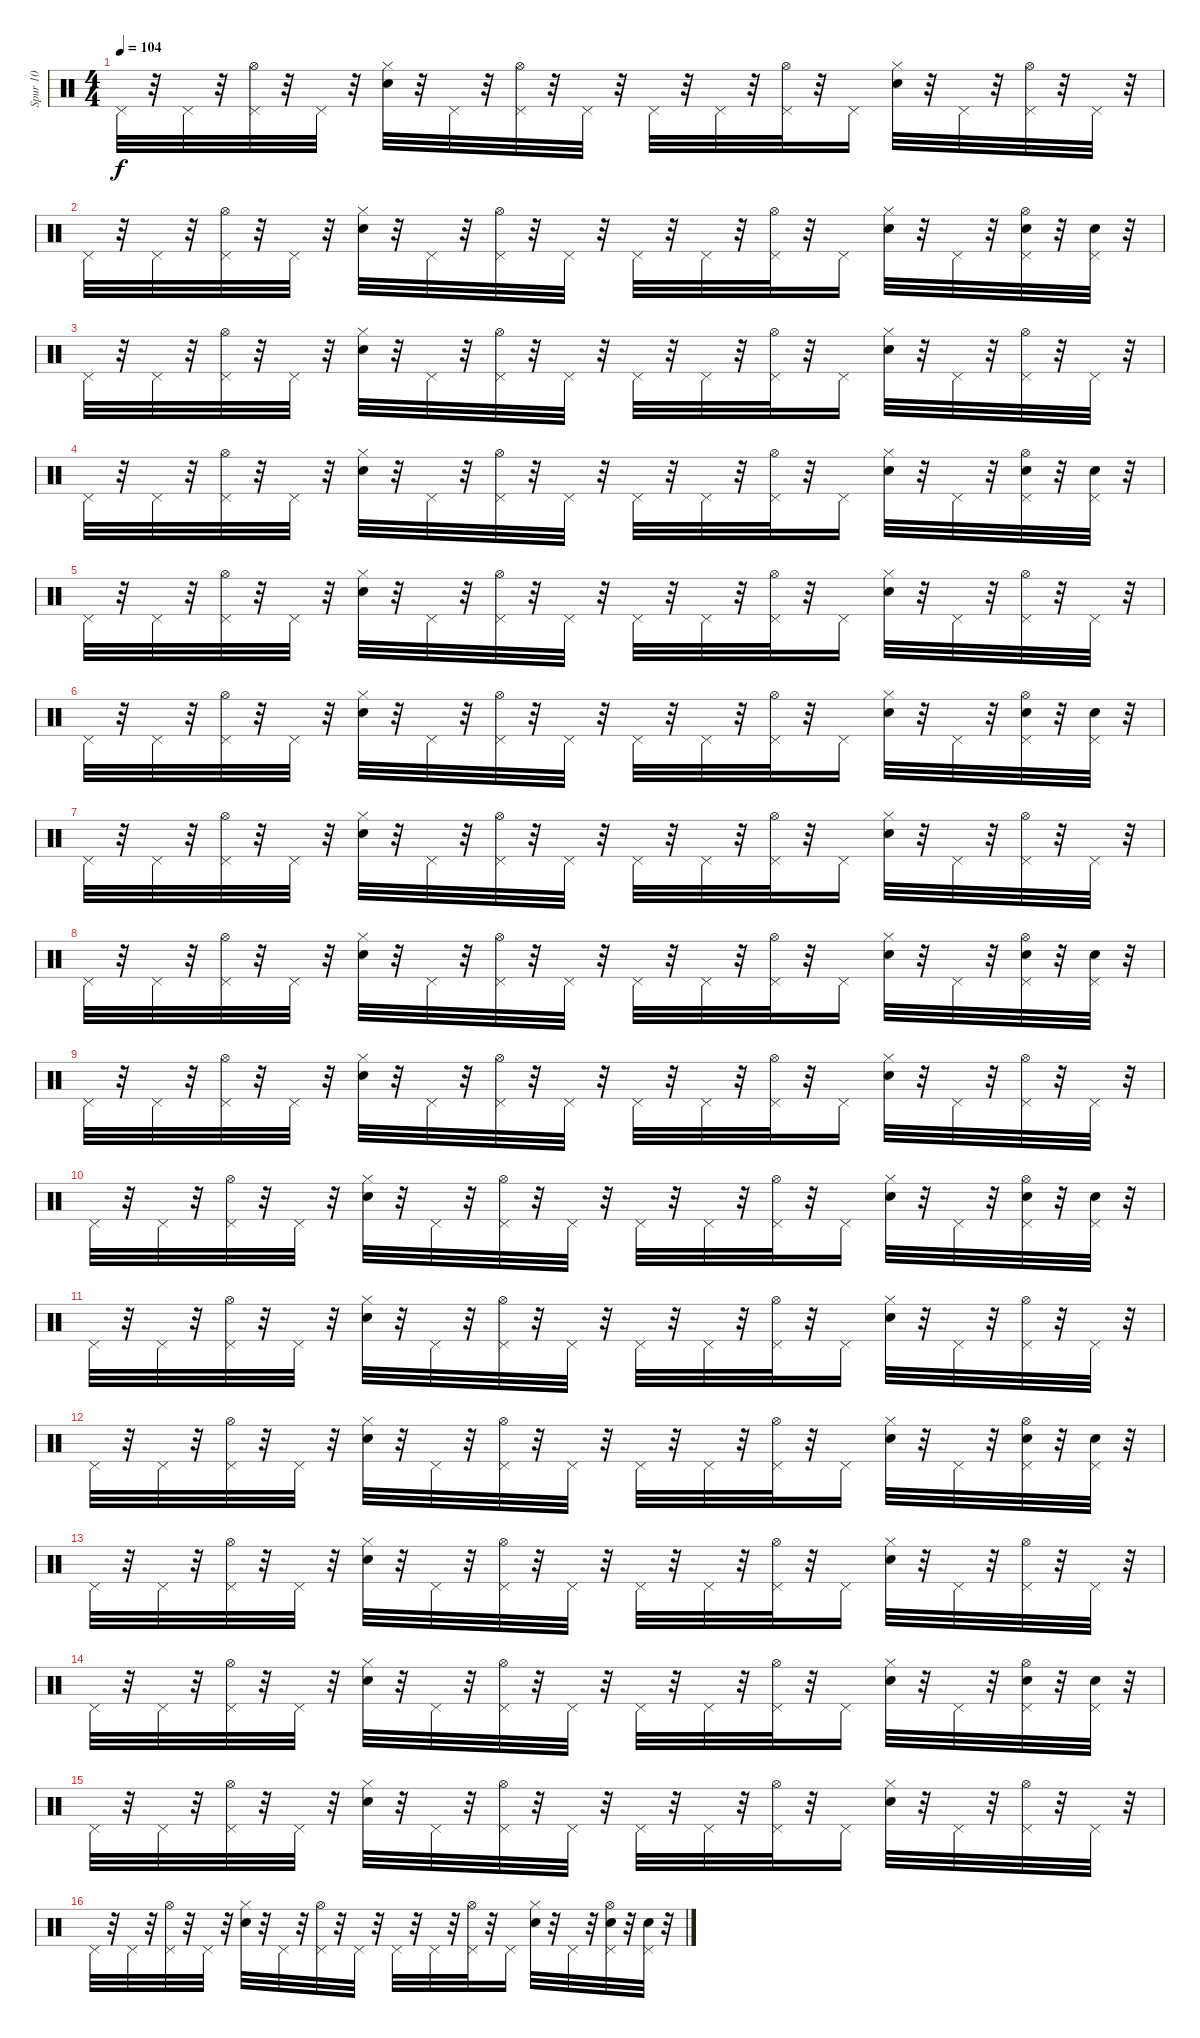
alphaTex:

\track ("Spur 10" "Spur 10") {instrument percussion}
\staff {score}
\articulation defaults
\ts (4 4)
\tempo 104
\clef neutral
\ks c "Pedal Hi-Hat (hit)".32{dy f}
r.32 "Pedal Hi-Hat (hit)".32 r.32 ("Pedal Hi-Hat (hit)" "Hi-Hat (open)").32 r.32 "Pedal Hi-Hat (hit)".32 r.32 ("Snare (hit) 2" "Hi-Hat (closed)").32 r.32 "Pedal Hi-Hat (hit)".32 r.32 ("Pedal Hi-Hat (hit)" "Hi-Hat (open)").32 r.32 "Pedal Hi-Hat (hit)".32 r.32 "Pedal Hi-Hat (hit)".32 r.32 "Pedal Hi-Hat (hit)".32 r.32 ("Pedal Hi-Hat (hit)" "Hi-Hat (open)").32 r.32 "Pedal Hi-Hat (hit)".16 ("Snare (hit) 2" "Hi-Hat (closed)").32 r.32 "Pedal Hi-Hat (hit)".32 r.32 ("Pedal Hi-Hat (hit)" "Hi-Hat (open)").32 r.32 "Pedal Hi-Hat (hit)".32 r.32 |
"Pedal Hi-Hat (hit)".32 r.32 "Pedal Hi-Hat (hit)".32 r.32 ("Pedal Hi-Hat (hit)" "Hi-Hat (open)").32 r.32 "Pedal Hi-Hat (hit)".32 r.32 ("Snare (hit) 2" "Hi-Hat (closed)").32 r.32 "Pedal Hi-Hat (hit)".32 r.32 ("Pedal Hi-Hat (hit)" "Hi-Hat (open)").32 r.32 "Pedal Hi-Hat (hit)".32 r.32 "Pedal Hi-Hat (hit)".32 r.32 "Pedal Hi-Hat (hit)".32 r.32 ("Pedal Hi-Hat (hit)" "Hi-Hat (open)").32 r.32 "Pedal Hi-Hat (hit)".16 ("Snare (hit) 2" "Hi-Hat (closed)").32 r.32 "Pedal Hi-Hat (hit)".32 r.32 ("Snare (hit) 2" "Pedal Hi-Hat (hit)" "Hi-Hat (open)").32 r.32 ("Snare (hit) 2" "Pedal Hi-Hat (hit)").32 r.32 |
"Pedal Hi-Hat (hit)".32 r.32 "Pedal Hi-Hat (hit)".32 r.32 ("Pedal Hi-Hat (hit)" "Hi-Hat (open)").32 r.32 "Pedal Hi-Hat (hit)".32 r.32 ("Snare (hit) 2" "Hi-Hat (closed)").32 r.32 "Pedal Hi-Hat (hit)".32 r.32 ("Pedal Hi-Hat (hit)" "Hi-Hat (open)").32 r.32 "Pedal Hi-Hat (hit)".32 r.32 "Pedal Hi-Hat (hit)".32 r.32 "Pedal Hi-Hat (hit)".32 r.32 ("Pedal Hi-Hat (hit)" "Hi-Hat (open)").32 r.32 "Pedal Hi-Hat (hit)".16 ("Snare (hit) 2" "Hi-Hat (closed)").32 r.32 "Pedal Hi-Hat (hit)".32 r.32 ("Pedal Hi-Hat (hit)" "Hi-Hat (open)").32 r.32 "Pedal Hi-Hat (hit)".32 r.32 |
"Pedal Hi-Hat (hit)".32 r.32 "Pedal Hi-Hat (hit)".32 r.32 ("Pedal Hi-Hat (hit)" "Hi-Hat (open)").32 r.32 "Pedal Hi-Hat (hit)".32 r.32 ("Snare (hit) 2" "Hi-Hat (closed)").32 r.32 "Pedal Hi-Hat (hit)".32 r.32 ("Pedal Hi-Hat (hit)" "Hi-Hat (open)").32 r.32 "Pedal Hi-Hat (hit)".32 r.32 "Pedal Hi-Hat (hit)".32 r.32 "Pedal Hi-Hat (hit)".32 r.32 ("Pedal Hi-Hat (hit)" "Hi-Hat (open)").32 r.32 "Pedal Hi-Hat (hit)".16 ("Snare (hit) 2" "Hi-Hat (closed)").32 r.32 "Pedal Hi-Hat (hit)".32 r.32 ("Snare (hit) 2" "Pedal Hi-Hat (hit)" "Hi-Hat (open)").32 r.32 ("Snare (hit) 2" "Pedal Hi-Hat (hit)").32 r.32 |
"Pedal Hi-Hat (hit)".32 r.32 "Pedal Hi-Hat (hit)".32 r.32 ("Pedal Hi-Hat (hit)" "Hi-Hat (open)").32 r.32 "Pedal Hi-Hat (hit)".32 r.32 ("Snare (hit) 2" "Hi-Hat (closed)").32 r.32 "Pedal Hi-Hat (hit)".32 r.32 ("Pedal Hi-Hat (hit)" "Hi-Hat (open)").32 r.32 "Pedal Hi-Hat (hit)".32 r.32 "Pedal Hi-Hat (hit)".32 r.32 "Pedal Hi-Hat (hit)".32 r.32 ("Pedal Hi-Hat (hit)" "Hi-Hat (open)").32 r.32 "Pedal Hi-Hat (hit)".16 ("Snare (hit) 2" "Hi-Hat (closed)").32 r.32 "Pedal Hi-Hat (hit)".32 r.32 ("Pedal Hi-Hat (hit)" "Hi-Hat (open)").32 r.32 "Pedal Hi-Hat (hit)".32 r.32 |
"Pedal Hi-Hat (hit)".32 r.32 "Pedal Hi-Hat (hit)".32 r.32 ("Pedal Hi-Hat (hit)" "Hi-Hat (open)").32 r.32 "Pedal Hi-Hat (hit)".32 r.32 ("Snare (hit) 2" "Hi-Hat (closed)").32 r.32 "Pedal Hi-Hat (hit)".32 r.32 ("Pedal Hi-Hat (hit)" "Hi-Hat (open)").32 r.32 "Pedal Hi-Hat (hit)".32 r.32 "Pedal Hi-Hat (hit)".32 r.32 "Pedal Hi-Hat (hit)".32 r.32 ("Pedal Hi-Hat (hit)" "Hi-Hat (open)").32 r.32 "Pedal Hi-Hat (hit)".16 ("Snare (hit) 2" "Hi-Hat (closed)").32 r.32 "Pedal Hi-Hat (hit)".32 r.32 ("Snare (hit) 2" "Pedal Hi-Hat (hit)" "Hi-Hat (open)").32 r.32 ("Snare (hit) 2" "Pedal Hi-Hat (hit)").32 r.32 |
"Pedal Hi-Hat (hit)".32 r.32 "Pedal Hi-Hat (hit)".32 r.32 ("Pedal Hi-Hat (hit)" "Hi-Hat (open)").32 r.32 "Pedal Hi-Hat (hit)".32 r.32 ("Snare (hit) 2" "Hi-Hat (closed)").32 r.32 "Pedal Hi-Hat (hit)".32 r.32 ("Pedal Hi-Hat (hit)" "Hi-Hat (open)").32 r.32 "Pedal Hi-Hat (hit)".32 r.32 "Pedal Hi-Hat (hit)".32 r.32 "Pedal Hi-Hat (hit)".32 r.32 ("Pedal Hi-Hat (hit)" "Hi-Hat (open)").32 r.32 "Pedal Hi-Hat (hit)".16 ("Snare (hit) 2" "Hi-Hat (closed)").32 r.32 "Pedal Hi-Hat (hit)".32 r.32 ("Pedal Hi-Hat (hit)" "Hi-Hat (open)").32 r.32 "Pedal Hi-Hat (hit)".32 r.32 |
"Pedal Hi-Hat (hit)".32 r.32 "Pedal Hi-Hat (hit)".32 r.32 ("Pedal Hi-Hat (hit)" "Hi-Hat (open)").32 r.32 "Pedal Hi-Hat (hit)".32 r.32 ("Snare (hit) 2" "Hi-Hat (closed)").32 r.32 "Pedal Hi-Hat (hit)".32 r.32 ("Pedal Hi-Hat (hit)" "Hi-Hat (open)").32 r.32 "Pedal Hi-Hat (hit)".32 r.32 "Pedal Hi-Hat (hit)".32 r.32 "Pedal Hi-Hat (hit)".32 r.32 ("Pedal Hi-Hat (hit)" "Hi-Hat (open)").32 r.32 "Pedal Hi-Hat (hit)".16 ("Snare (hit) 2" "Hi-Hat (closed)").32 r.32 "Pedal Hi-Hat (hit)".32 r.32 ("Snare (hit) 2" "Pedal Hi-Hat (hit)" "Hi-Hat (open)").32 r.32 ("Snare (hit) 2" "Pedal Hi-Hat (hit)").32 r.32 |
"Pedal Hi-Hat (hit)".32 r.32 "Pedal Hi-Hat (hit)".32 r.32 ("Pedal Hi-Hat (hit)" "Hi-Hat (open)").32 r.32 "Pedal Hi-Hat (hit)".32 r.32 ("Snare (hit) 2" "Hi-Hat (closed)").32 r.32 "Pedal Hi-Hat (hit)".32 r.32 ("Pedal Hi-Hat (hit)" "Hi-Hat (open)").32 r.32 "Pedal Hi-Hat (hit)".32 r.32 "Pedal Hi-Hat (hit)".32 r.32 "Pedal Hi-Hat (hit)".32 r.32 ("Pedal Hi-Hat (hit)" "Hi-Hat (open)").32 r.32 "Pedal Hi-Hat (hit)".16 ("Snare (hit) 2" "Hi-Hat (closed)").32 r.32 "Pedal Hi-Hat (hit)".32 r.32 ("Pedal Hi-Hat (hit)" "Hi-Hat (open)").32 r.32 "Pedal Hi-Hat (hit)".32 r.32 |
"Pedal Hi-Hat (hit)".32 r.32 "Pedal Hi-Hat (hit)".32 r.32 ("Pedal Hi-Hat (hit)" "Hi-Hat (open)").32 r.32 "Pedal Hi-Hat (hit)".32 r.32 ("Snare (hit) 2" "Hi-Hat (closed)").32 r.32 "Pedal Hi-Hat (hit)".32 r.32 ("Pedal Hi-Hat (hit)" "Hi-Hat (open)").32 r.32 "Pedal Hi-Hat (hit)".32 r.32 "Pedal Hi-Hat (hit)".32 r.32 "Pedal Hi-Hat (hit)".32 r.32 ("Pedal Hi-Hat (hit)" "Hi-Hat (open)").32 r.32 "Pedal Hi-Hat (hit)".16 ("Snare (hit) 2" "Hi-Hat (closed)").32 r.32 "Pedal Hi-Hat (hit)".32 r.32 ("Snare (hit) 2" "Pedal Hi-Hat (hit)" "Hi-Hat (open)").32 r.32 ("Snare (hit) 2" "Pedal Hi-Hat (hit)").32 r.32 |
"Pedal Hi-Hat (hit)".32 r.32 "Pedal Hi-Hat (hit)".32 r.32 ("Pedal Hi-Hat (hit)" "Hi-Hat (open)").32 r.32 "Pedal Hi-Hat (hit)".32 r.32 ("Snare (hit) 2" "Hi-Hat (closed)").32 r.32 "Pedal Hi-Hat (hit)".32 r.32 ("Pedal Hi-Hat (hit)" "Hi-Hat (open)").32 r.32 "Pedal Hi-Hat (hit)".32 r.32 "Pedal Hi-Hat (hit)".32 r.32 "Pedal Hi-Hat (hit)".32 r.32 ("Pedal Hi-Hat (hit)" "Hi-Hat (open)").32 r.32 "Pedal Hi-Hat (hit)".16 ("Snare (hit) 2" "Hi-Hat (closed)").32 r.32 "Pedal Hi-Hat (hit)".32 r.32 ("Pedal Hi-Hat (hit)" "Hi-Hat (open)").32 r.32 "Pedal Hi-Hat (hit)".32 r.32 |
"Pedal Hi-Hat (hit)".32 r.32 "Pedal Hi-Hat (hit)".32 r.32 ("Pedal Hi-Hat (hit)" "Hi-Hat (open)").32 r.32 "Pedal Hi-Hat (hit)".32 r.32 ("Snare (hit) 2" "Hi-Hat (closed)").32 r.32 "Pedal Hi-Hat (hit)".32 r.32 ("Pedal Hi-Hat (hit)" "Hi-Hat (open)").32 r.32 "Pedal Hi-Hat (hit)".32 r.32 "Pedal Hi-Hat (hit)".32 r.32 "Pedal Hi-Hat (hit)".32 r.32 ("Pedal Hi-Hat (hit)" "Hi-Hat (open)").32 r.32 "Pedal Hi-Hat (hit)".16 ("Snare (hit) 2" "Hi-Hat (closed)").32 r.32 "Pedal Hi-Hat (hit)".32 r.32 ("Snare (hit) 2" "Pedal Hi-Hat (hit)" "Hi-Hat (open)").32 r.32 ("Snare (hit) 2" "Pedal Hi-Hat (hit)").32 r.32 |
"Pedal Hi-Hat (hit)".32 r.32 "Pedal Hi-Hat (hit)".32 r.32 ("Pedal Hi-Hat (hit)" "Hi-Hat (open)").32 r.32 "Pedal Hi-Hat (hit)".32 r.32 ("Snare (hit) 2" "Hi-Hat (closed)").32 r.32 "Pedal Hi-Hat (hit)".32 r.32 ("Pedal Hi-Hat (hit)" "Hi-Hat (open)").32 r.32 "Pedal Hi-Hat (hit)".32 r.32 "Pedal Hi-Hat (hit)".32 r.32 "Pedal Hi-Hat (hit)".32 r.32 ("Pedal Hi-Hat (hit)" "Hi-Hat (open)").32 r.32 "Pedal Hi-Hat (hit)".16 ("Snare (hit) 2" "Hi-Hat (closed)").32 r.32 "Pedal Hi-Hat (hit)".32 r.32 ("Pedal Hi-Hat (hit)" "Hi-Hat (open)").32 r.32 "Pedal Hi-Hat (hit)".32 r.32 |
"Pedal Hi-Hat (hit)".32 r.32 "Pedal Hi-Hat (hit)".32 r.32 ("Pedal Hi-Hat (hit)" "Hi-Hat (open)").32 r.32 "Pedal Hi-Hat (hit)".32 r.32 ("Snare (hit) 2" "Hi-Hat (closed)").32 r.32 "Pedal Hi-Hat (hit)".32 r.32 ("Pedal Hi-Hat (hit)" "Hi-Hat (open)").32 r.32 "Pedal Hi-Hat (hit)".32 r.32 "Pedal Hi-Hat (hit)".32 r.32 "Pedal Hi-Hat (hit)".32 r.32 ("Pedal Hi-Hat (hit)" "Hi-Hat (open)").32 r.32 "Pedal Hi-Hat (hit)".16 ("Snare (hit) 2" "Hi-Hat (closed)").32 r.32 "Pedal Hi-Hat (hit)".32 r.32 ("Snare (hit) 2" "Pedal Hi-Hat (hit)" "Hi-Hat (open)").32 r.32 ("Snare (hit) 2" "Pedal Hi-Hat (hit)").32 r.32 |
"Pedal Hi-Hat (hit)".32 r.32 "Pedal Hi-Hat (hit)".32 r.32 ("Pedal Hi-Hat (hit)" "Hi-Hat (open)").32 r.32 "Pedal Hi-Hat (hit)".32 r.32 ("Snare (hit) 2" "Hi-Hat (closed)").32 r.32 "Pedal Hi-Hat (hit)".32 r.32 ("Pedal Hi-Hat (hit)" "Hi-Hat (open)").32 r.32 "Pedal Hi-Hat (hit)".32 r.32 "Pedal Hi-Hat (hit)".32 r.32 "Pedal Hi-Hat (hit)".32 r.32 ("Pedal Hi-Hat (hit)" "Hi-Hat (open)").32 r.32 "Pedal Hi-Hat (hit)".16 ("Snare (hit) 2" "Hi-Hat (closed)").32 r.32 "Pedal Hi-Hat (hit)".32 r.32 ("Pedal Hi-Hat (hit)" "Hi-Hat (open)").32 r.32 "Pedal Hi-Hat (hit)".32 r.32 |
"Pedal Hi-Hat (hit)".32 r.32 "Pedal Hi-Hat (hit)".32 r.32 ("Pedal Hi-Hat (hit)" "Hi-Hat (open)").32 r.32 "Pedal Hi-Hat (hit)".32 r.32 ("Snare (hit) 2" "Hi-Hat (closed)").32 r.32 "Pedal Hi-Hat (hit)".32 r.32 ("Pedal Hi-Hat (hit)" "Hi-Hat (open)").32 r.32 "Pedal Hi-Hat (hit)".32 r.32 "Pedal Hi-Hat (hit)".32 r.32 "Pedal Hi-Hat (hit)".32 r.32 ("Pedal Hi-Hat (hit)" "Hi-Hat (open)").32 r.32 "Pedal Hi-Hat (hit)".16 ("Snare (hit) 2" "Hi-Hat (closed)").32 r.32 "Pedal Hi-Hat (hit)".32 r.32 ("Snare (hit) 2" "Pedal Hi-Hat (hit)" "Hi-Hat (open)").32 r.32 ("Snare (hit) 2" "Pedal Hi-Hat (hit)").32 r.32
